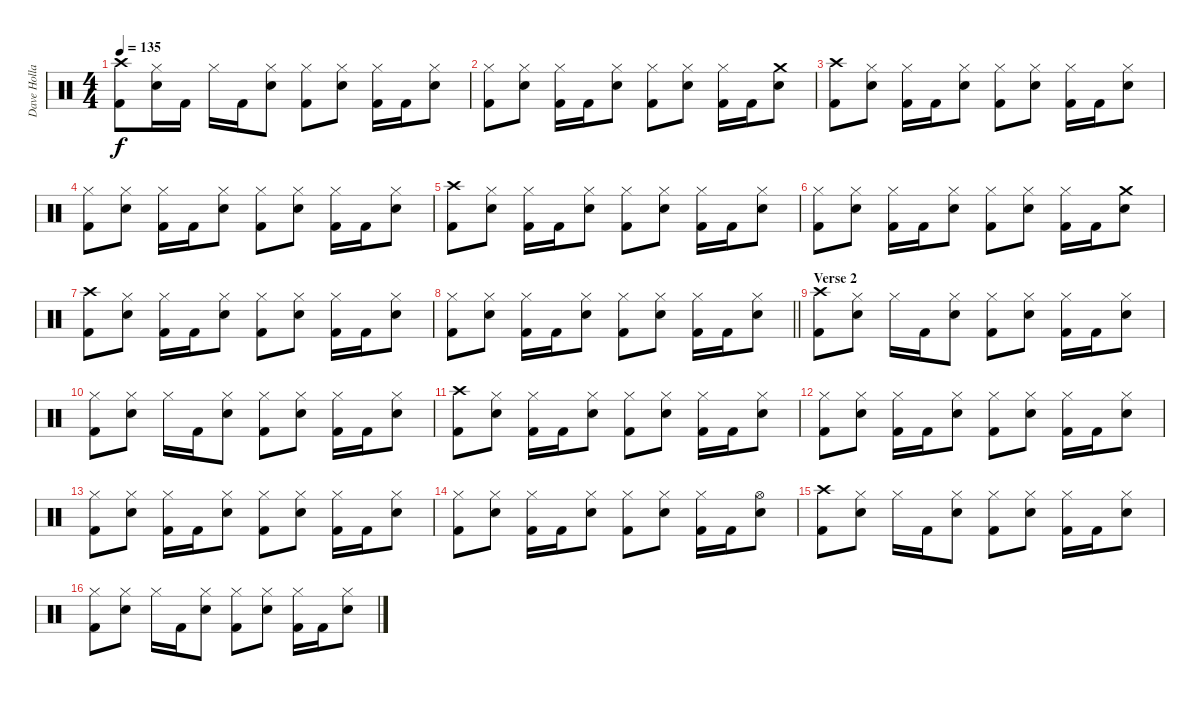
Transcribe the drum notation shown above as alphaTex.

\track ("Dave Holland" "Dave Holla") {instrument percussion}
\staff {score}
\articulation defaults
\ts (4 4)
\tempo 135
\clef neutral
\ks c
("Crash high (hit)" "Kick (hit) 2").8{dy f} ("Hi-Hat (closed)" "Snare (hit) 2").16 "Kick (hit) 2".16 "Hi-Hat (closed)".16 "Kick (hit) 2".16 ("Hi-Hat (closed)" "Snare (hit) 2").8 ("Hi-Hat (closed)" "Kick (hit) 2").8 ("Hi-Hat (closed)" "Snare (hit) 2").8 ("Hi-Hat (closed)" "Kick (hit) 2").16 "Kick (hit) 2".16 ("Hi-Hat (closed)" "Snare (hit) 2").8 |
("Hi-Hat (closed)" "Kick (hit) 2").8 ("Hi-Hat (closed)" "Snare (hit) 2").8 ("Hi-Hat (closed)" "Kick (hit) 2").16 "Kick (hit) 2".16 ("Hi-Hat (closed)" "Snare (hit) 2").8 ("Hi-Hat (closed)" "Kick (hit) 2").8 ("Hi-Hat (closed)" "Snare (hit) 2").8 ("Hi-Hat (closed)" "Kick (hit) 2").16 "Kick (hit) 2".16 ("Crash medium (hit)" "Snare (hit) 2").8 |
("Crash high (hit)" "Kick (hit) 2").8 ("Hi-Hat (closed)" "Snare (hit) 2").8 ("Hi-Hat (closed)" "Kick (hit) 2").16 "Kick (hit) 2".16 ("Hi-Hat (closed)" "Snare (hit) 2").8 ("Hi-Hat (closed)" "Kick (hit) 2").8 ("Hi-Hat (closed)" "Snare (hit) 2").8 ("Hi-Hat (closed)" "Kick (hit) 2").16 "Kick (hit) 2".16 ("Hi-Hat (closed)" "Snare (hit) 2").8 |
("Hi-Hat (closed)" "Kick (hit) 2").8 ("Hi-Hat (closed)" "Snare (hit) 2").8 ("Hi-Hat (closed)" "Kick (hit) 2").16 "Kick (hit) 2".16 ("Hi-Hat (closed)" "Snare (hit) 2").8 ("Hi-Hat (closed)" "Kick (hit) 2").8 ("Hi-Hat (closed)" "Snare (hit) 2").8 ("Hi-Hat (closed)" "Kick (hit) 2").16 "Kick (hit) 2".16 ("Hi-Hat (closed)" "Snare (hit) 2").8 |
("Crash high (hit)" "Kick (hit) 2").8 ("Hi-Hat (closed)" "Snare (hit) 2").8 ("Hi-Hat (closed)" "Kick (hit) 2").16 "Kick (hit) 2".16 ("Hi-Hat (closed)" "Snare (hit) 2").8 ("Hi-Hat (closed)" "Kick (hit) 2").8 ("Hi-Hat (closed)" "Snare (hit) 2").8 ("Hi-Hat (closed)" "Kick (hit) 2").16 "Kick (hit) 2".16 ("Hi-Hat (closed)" "Snare (hit) 2").8 |
("Hi-Hat (closed)" "Kick (hit) 2").8 ("Hi-Hat (closed)" "Snare (hit) 2").8 ("Hi-Hat (closed)" "Kick (hit) 2").16 "Kick (hit) 2".16 ("Hi-Hat (closed)" "Snare (hit) 2").8 ("Hi-Hat (closed)" "Kick (hit) 2").8 ("Hi-Hat (closed)" "Snare (hit) 2").8 ("Hi-Hat (closed)" "Kick (hit) 2").16 "Kick (hit) 2".16 ("Crash medium (hit)" "Snare (hit) 2").8 |
("Crash high (hit)" "Kick (hit) 2").8 ("Hi-Hat (closed)" "Snare (hit) 2").8 ("Hi-Hat (closed)" "Kick (hit) 2").16 "Kick (hit) 2".16 ("Hi-Hat (closed)" "Snare (hit) 2").8 ("Hi-Hat (closed)" "Kick (hit) 2").8 ("Hi-Hat (closed)" "Snare (hit) 2").8 ("Hi-Hat (closed)" "Kick (hit) 2").16 "Kick (hit) 2".16 ("Hi-Hat (closed)" "Snare (hit) 2").8 |
\barLineRight lightlight
("Hi-Hat (closed)" "Kick (hit) 2").8 ("Hi-Hat (closed)" "Snare (hit) 2").8 ("Hi-Hat (closed)" "Kick (hit) 2").16 "Kick (hit) 2".16 ("Hi-Hat (closed)" "Snare (hit) 2").8 ("Hi-Hat (closed)" "Kick (hit) 2").8 ("Hi-Hat (closed)" "Snare (hit) 2").8 ("Hi-Hat (closed)" "Kick (hit) 2").16 "Kick (hit) 2".16 ("Hi-Hat (closed)" "Snare (hit) 2").8 |
\section ("" "Verse 2")
("Crash high (hit)" "Kick (hit) 2").8 ("Hi-Hat (closed)" "Snare (hit) 2").8 "Hi-Hat (closed)".16 "Kick (hit) 2".16 ("Hi-Hat (closed)" "Snare (hit) 2").8 ("Hi-Hat (closed)" "Kick (hit) 2").8 ("Hi-Hat (closed)" "Snare (hit) 2").8 ("Hi-Hat (closed)" "Kick (hit) 2").16 "Kick (hit) 2".16 ("Hi-Hat (closed)" "Snare (hit) 2").8 |
("Hi-Hat (closed)" "Kick (hit) 2").8 ("Hi-Hat (closed)" "Snare (hit) 2").8 "Hi-Hat (closed)".16 "Kick (hit) 2".16 ("Hi-Hat (closed)" "Snare (hit) 2").8 ("Hi-Hat (closed)" "Kick (hit) 2").8 ("Hi-Hat (closed)" "Snare (hit) 2").8 ("Hi-Hat (closed)" "Kick (hit) 2").16 "Kick (hit) 2".16 ("Hi-Hat (closed)" "Snare (hit) 2").8 |
("Crash high (hit)" "Kick (hit) 2").8 ("Hi-Hat (closed)" "Snare (hit) 2").8 ("Hi-Hat (closed)" "Kick (hit) 2").16 "Kick (hit) 2".16 ("Hi-Hat (closed)" "Snare (hit) 2").8 ("Hi-Hat (closed)" "Kick (hit) 2").8 ("Hi-Hat (closed)" "Snare (hit) 2").8 ("Hi-Hat (closed)" "Kick (hit) 2").16 "Kick (hit) 2".16 ("Hi-Hat (closed)" "Snare (hit) 2").8 |
("Hi-Hat (closed)" "Kick (hit) 2").8 ("Hi-Hat (closed)" "Snare (hit) 2").8 ("Hi-Hat (closed)" "Kick (hit) 2").16 "Kick (hit) 2".16 ("Hi-Hat (closed)" "Snare (hit) 2").8 ("Hi-Hat (closed)" "Kick (hit) 2").8 ("Hi-Hat (closed)" "Snare (hit) 2").8 ("Hi-Hat (closed)" "Kick (hit) 2").16 "Kick (hit) 2".16 ("Hi-Hat (closed)" "Snare (hit) 2").8 |
("Hi-Hat (closed)" "Kick (hit) 2").8 ("Hi-Hat (closed)" "Snare (hit) 2").8 ("Hi-Hat (closed)" "Kick (hit) 2").16 "Kick (hit) 2".16 ("Hi-Hat (closed)" "Snare (hit) 2").8 ("Hi-Hat (closed)" "Kick (hit) 2").8 ("Hi-Hat (closed)" "Snare (hit) 2").8 ("Hi-Hat (closed)" "Kick (hit) 2").16 "Kick (hit) 2".16 ("Hi-Hat (closed)" "Snare (hit) 2").8 |
("Hi-Hat (closed)" "Kick (hit) 2").8 ("Hi-Hat (closed)" "Snare (hit) 2").8 ("Hi-Hat (closed)" "Kick (hit) 2").16 "Kick (hit) 2".16 ("Hi-Hat (closed)" "Snare (hit) 2").8 ("Hi-Hat (closed)" "Kick (hit) 2").8 ("Hi-Hat (closed)" "Snare (hit) 2").8 ("Hi-Hat (closed)" "Kick (hit) 2").16 "Kick (hit) 2".16 ("Hi-Hat (open)" "Snare (hit) 2").8 |
("Crash high (hit)" "Kick (hit) 2").8 ("Hi-Hat (closed)" "Snare (hit) 2").8 "Hi-Hat (closed)".16 "Kick (hit) 2".16 ("Hi-Hat (closed)" "Snare (hit) 2").8 ("Hi-Hat (closed)" "Kick (hit) 2").8 ("Hi-Hat (closed)" "Snare (hit) 2").8 ("Hi-Hat (closed)" "Kick (hit) 2").16 "Kick (hit) 2".16 ("Hi-Hat (closed)" "Snare (hit) 2").8 |
("Hi-Hat (closed)" "Kick (hit) 2").8 ("Hi-Hat (closed)" "Snare (hit) 2").8 "Hi-Hat (closed)".16 "Kick (hit) 2".16 ("Hi-Hat (closed)" "Snare (hit) 2").8 ("Hi-Hat (closed)" "Kick (hit) 2").8 ("Hi-Hat (closed)" "Snare (hit) 2").8 ("Hi-Hat (closed)" "Kick (hit) 2").16 "Kick (hit) 2".16 ("Hi-Hat (closed)" "Snare (hit) 2").8
